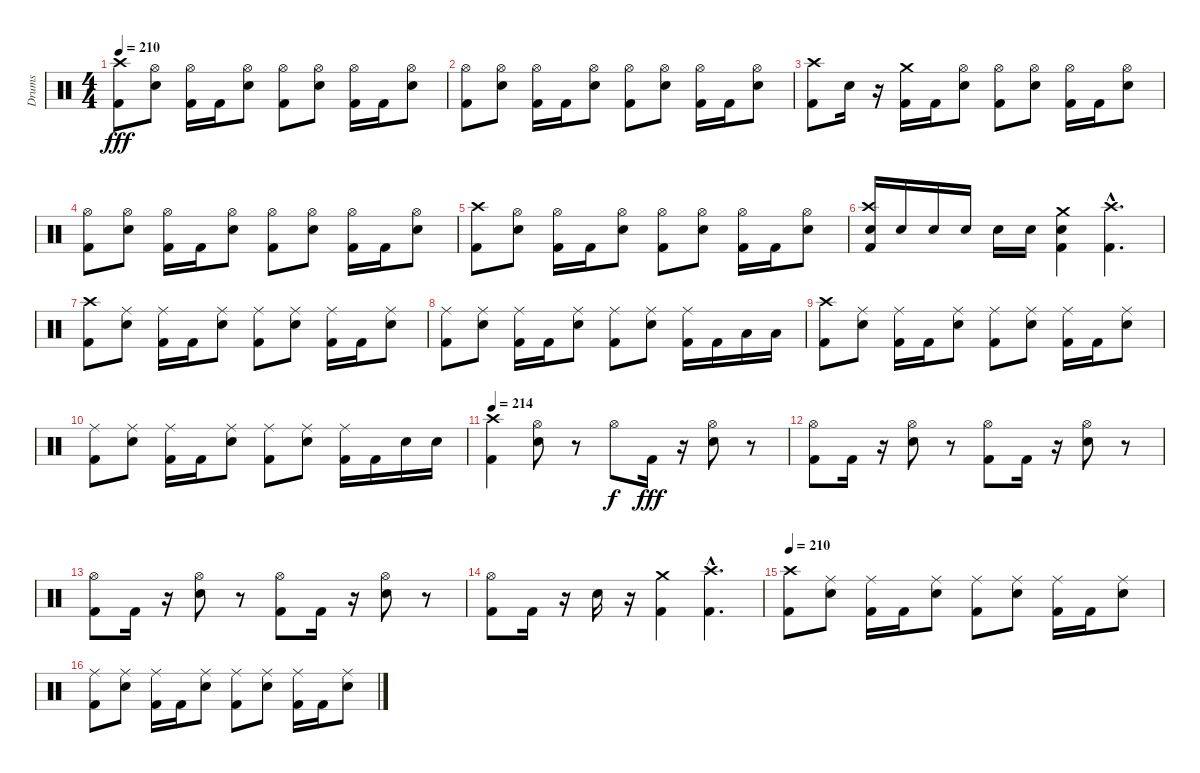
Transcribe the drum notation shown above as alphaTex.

\track ("Drums" "Drums") {instrument percussion}
\staff {score}
\articulation defaults
\ts (4 4)
\tempo 210
\clef neutral
\ks c
("Kick (hit) 2" "Crash high (hit)").8{dy fff} ("Electric Snare (hit)" "Hi-Hat (open)").8 ("Kick (hit) 2" "Hi-Hat (open)").16 "Kick (hit) 2".16 ("Electric Snare (hit)" "Hi-Hat (open)").8 ("Kick (hit) 2" "Hi-Hat (open)").8 ("Electric Snare (hit)" "Hi-Hat (open)").8 ("Kick (hit) 2" "Hi-Hat (open)").16 "Kick (hit) 2".16 ("Electric Snare (hit)" "Hi-Hat (open)").8 |
("Kick (hit) 2" "Hi-Hat (open)").8 ("Electric Snare (hit)" "Hi-Hat (open)").8 ("Kick (hit) 2" "Hi-Hat (open)").16 "Kick (hit) 2".16 ("Electric Snare (hit)" "Hi-Hat (open)").8 ("Kick (hit) 2" "Hi-Hat (open)").8 ("Electric Snare (hit)" "Hi-Hat (open)").8 ("Kick (hit) 2" "Hi-Hat (open)").16 "Kick (hit) 2".16 ("Electric Snare (hit)" "Hi-Hat (open)").8 |
("Kick (hit) 2" "Crash high (hit)").8 "Electric Snare (hit)".16 r.16 ("Kick (hit) 2" "Crash medium (hit)").16 "Kick (hit) 2".16 ("Electric Snare (hit)" "Hi-Hat (open)").8 ("Kick (hit) 2" "Hi-Hat (open)").8 ("Electric Snare (hit)" "Hi-Hat (open)").8 ("Kick (hit) 2" "Hi-Hat (open)").16 "Kick (hit) 2".16 ("Electric Snare (hit)" "Hi-Hat (open)").8 |
("Kick (hit) 2" "Hi-Hat (open)").8 ("Electric Snare (hit)" "Hi-Hat (open)").8 ("Kick (hit) 2" "Hi-Hat (open)").16 "Kick (hit) 2".16 ("Electric Snare (hit)" "Hi-Hat (open)").8 ("Kick (hit) 2" "Hi-Hat (open)").8 ("Electric Snare (hit)" "Hi-Hat (open)").8 ("Kick (hit) 2" "Hi-Hat (open)").16 "Kick (hit) 2".16 ("Electric Snare (hit)" "Hi-Hat (open)").8 |
("Kick (hit) 2" "Crash high (hit)").8 ("Electric Snare (hit)" "Hi-Hat (open)").8 ("Kick (hit) 2" "Hi-Hat (open)").16 "Kick (hit) 2".16 ("Electric Snare (hit)" "Hi-Hat (open)").8 ("Kick (hit) 2" "Hi-Hat (open)").8 ("Electric Snare (hit)" "Hi-Hat (open)").8 ("Kick (hit) 2" "Hi-Hat (open)").16 "Kick (hit) 2".16 ("Electric Snare (hit)" "Hi-Hat (open)").8 |
("Kick (hit) 2" "Electric Snare (hit)" "Crash high (hit)").16 "Electric Snare (hit)".16 "Electric Snare (hit)".16 "Electric Snare (hit)".16 "Electric Snare (hit)".16 "Electric Snare (hit)".16 ("Electric Snare (hit)" "Crash medium (hit)" "Kick (hit) 2").4 ("Kick (hit) 2" "Crash high (hit)"{hac}).4{d} |
("Kick (hit) 2" "Crash high (hit)").8 ("Electric Snare (hit)" "Ride (middle)").8 ("Kick (hit) 2" "Ride (middle)").16 "Kick (hit) 2".16 ("Electric Snare (hit)" "Ride (middle)").8 ("Kick (hit) 2" "Ride (middle)").8 ("Electric Snare (hit)" "Ride (middle)").8 ("Kick (hit) 2" "Ride (middle)").16 "Kick (hit) 2".16 ("Electric Snare (hit)" "Ride (middle)").8 |
("Kick (hit) 2" "Ride (middle)").8 ("Electric Snare (hit)" "Ride (middle)").8 ("Kick (hit) 2" "Ride (middle)").16 "Kick (hit) 2".16 ("Electric Snare (hit)" "Ride (middle)").8 ("Kick (hit) 2" "Ride (middle)").8 ("Electric Snare (hit)" "Ride (middle)").8 ("Kick (hit) 2" "Ride (middle)").16 "Kick (hit) 2".16 "Low Tom (hit)".16 "Low Tom (hit)".16 |
("Kick (hit) 2" "Crash high (hit)").8 ("Electric Snare (hit)" "Ride (middle)").8 ("Kick (hit) 2" "Ride (middle)").16 "Kick (hit) 2".16 ("Electric Snare (hit)" "Ride (middle)").8 ("Kick (hit) 2" "Ride (middle)").8 ("Electric Snare (hit)" "Ride (middle)").8 ("Kick (hit) 2" "Ride (middle)").16 "Kick (hit) 2".16 ("Electric Snare (hit)" "Ride (middle)").8 |
("Kick (hit) 2" "Ride (middle)").8 ("Electric Snare (hit)" "Ride (middle)").8 ("Kick (hit) 2" "Ride (middle)").16 "Kick (hit) 2".16 ("Electric Snare (hit)" "Ride (middle)").8 ("Kick (hit) 2" "Ride (middle)").8 ("Electric Snare (hit)" "Ride (middle)").8 ("Kick (hit) 2" "Ride (middle)").16 "Kick (hit) 2".16 "Electric Snare (hit)".16 "Electric Snare (hit)".16 |
\tempo 214
("Kick (hit) 2" "Crash high (hit)").4 ("Electric Snare (hit)" "Hi-Hat (open)").8 r.8 "Hi-Hat (open)".8{dy f} "Kick (hit) 2".16{dy fff} r.16 ("Electric Snare (hit)" "Hi-Hat (open)").8 r.8 |
("Kick (hit) 2" "Hi-Hat (open)").8 "Kick (hit) 2".16 r.16 ("Electric Snare (hit)" "Hi-Hat (open)").8 r.8 ("Kick (hit) 2" "Hi-Hat (open)").8 "Kick (hit) 2".16 r.16 ("Electric Snare (hit)" "Hi-Hat (open)").8 r.8 |
("Kick (hit) 2" "Hi-Hat (open)").8 "Kick (hit) 2".16 r.16 ("Electric Snare (hit)" "Hi-Hat (open)").8 r.8 ("Kick (hit) 2" "Hi-Hat (open)").8 "Kick (hit) 2".16 r.16 ("Electric Snare (hit)" "Hi-Hat (open)").8 r.8 |
("Kick (hit) 2" "Hi-Hat (open)").8 "Kick (hit) 2".16 r.16 "Electric Snare (hit)".16 r.16 ("Kick (hit) 2" "Crash medium (hit)").4 ("Kick (hit) 2" "Crash high (hit)"{hac}).4{d} |
\tempo 210
("Kick (hit) 2" "Crash high (hit)").8 ("Electric Snare (hit)" "Ride (middle)").8 ("Kick (hit) 2" "Ride (middle)").16 "Kick (hit) 2".16 ("Electric Snare (hit)" "Ride (middle)").8 ("Kick (hit) 2" "Ride (middle)").8 ("Electric Snare (hit)" "Ride (middle)").8 ("Kick (hit) 2" "Ride (middle)").16 "Kick (hit) 2".16 ("Electric Snare (hit)" "Ride (middle)").8 |
("Kick (hit) 2" "Ride (middle)").8 ("Electric Snare (hit)" "Ride (middle)").8 ("Kick (hit) 2" "Ride (middle)").16 "Kick (hit) 2".16 ("Electric Snare (hit)" "Ride (middle)").8 ("Kick (hit) 2" "Ride (middle)").8 ("Electric Snare (hit)" "Ride (middle)").8 ("Kick (hit) 2" "Ride (middle)").16 "Kick (hit) 2".16 ("Electric Snare (hit)" "Ride (middle)").8
